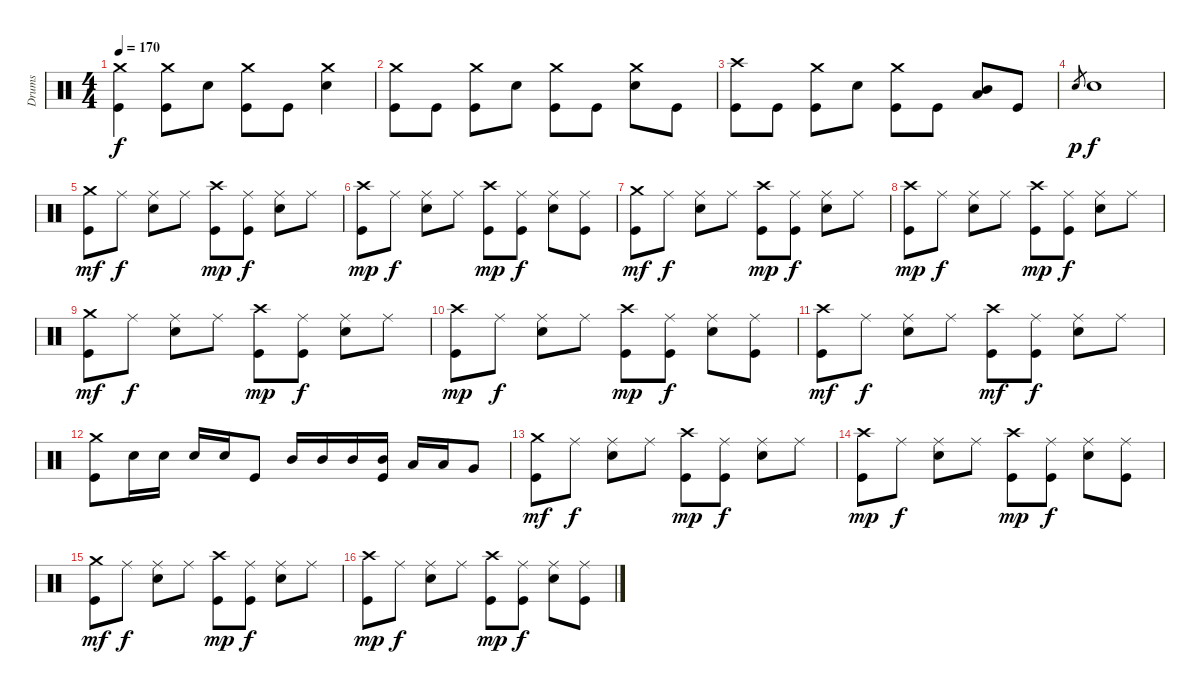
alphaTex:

\track ("Drums" "Drums") {instrument percussion}
\staff {score}
\articulation defaults
\ts (4 4)
\tempo 170
\clef neutral
\ks c
("Crash medium (hit)" "Kick (hit)").4{dy f} ("Crash medium (hit)" "Kick (hit)").8 "Snare (hit) 2".8 ("Crash medium (hit)" "Kick (hit)").8 "Kick (hit)".8 ("Crash medium (hit)" "Snare (hit) 2").4 |
("Crash medium (hit)" "Kick (hit)").8 "Kick (hit)".8 ("Crash medium (hit)" "Kick (hit)").8 "Snare (hit) 2".8 ("Crash medium (hit)" "Kick (hit)").8 "Kick (hit)".8 ("Crash medium (hit)" "Snare (hit) 2").8 "Kick (hit)".8 |
("Crash high (hit)" "Kick (hit)").8 "Kick (hit)".8 ("Crash medium (hit)" "Kick (hit)").8 "Snare (hit) 2".8 ("Crash medium (hit)" "Kick (hit)").8 "Kick (hit)".8 ("Mid Tom (hit)" "Low Tom (hit)").8 "Kick (hit)".8 |
"Snare (hit) 2".8{gr dy p} "Snare (hit) 2".1{dy f} |
("Crash medium (hit)" "Kick (hit)").8{dy mf} "Ride (middle)".8{dy f} ("Ride (middle)" "Snare (hit) 2").8 "Ride (middle)".8 ("Crash high (hit)" "Kick (hit)").8{dy mp} ("Ride (middle)" "Kick (hit)").8{dy f} ("Ride (middle)" "Snare (hit) 2").8 "Ride (middle)".8 |
("Crash high (hit)" "Kick (hit)").8{dy mp} "Ride (middle)".8{dy f} ("Ride (middle)" "Snare (hit) 2").8 "Ride (middle)".8 ("Crash high (hit)" "Kick (hit)").8{dy mp} ("Ride (middle)" "Kick (hit)").8{dy f} ("Ride (middle)" "Snare (hit) 2").8 ("Ride (middle)" "Kick (hit)").8 |
("Crash medium (hit)" "Kick (hit)").8{dy mf} "Ride (middle)".8{dy f} ("Ride (middle)" "Snare (hit) 2").8 "Ride (middle)".8 ("Crash high (hit)" "Kick (hit)").8{dy mp} ("Ride (middle)" "Kick (hit)").8{dy f} ("Ride (middle)" "Snare (hit) 2").8 "Ride (middle)".8 |
("Crash high (hit)" "Kick (hit)").8{dy mp} "Ride (middle)".8{dy f} ("Ride (middle)" "Snare (hit) 2").8 "Ride (middle)".8 ("Crash high (hit)" "Kick (hit)").8{dy mp} ("Ride (middle)" "Kick (hit)").8{dy f} ("Ride (middle)" "Snare (hit) 2").8 "Ride (middle)".8 |
("Crash medium (hit)" "Kick (hit)").8{dy mf} "Ride (middle)".8{dy f} ("Ride (middle)" "Snare (hit) 2").8 "Ride (middle)".8 ("Crash high (hit)" "Kick (hit)").8{dy mp} ("Ride (middle)" "Kick (hit)").8{dy f} ("Ride (middle)" "Snare (hit) 2").8 "Ride (middle)".8 |
("Crash high (hit)" "Kick (hit)").8{dy mp} "Ride (middle)".8{dy f} ("Ride (middle)" "Snare (hit) 2").8 "Ride (middle)".8 ("Crash high (hit)" "Kick (hit)").8{dy mp} ("Ride (middle)" "Kick (hit)").8{dy f} ("Ride (middle)" "Snare (hit) 2").8 ("Ride (middle)" "Kick (hit)").8 |
("Crash high (hit)" "Kick (hit)").8{dy mf} "Ride (middle)".8{dy f} ("Ride (middle)" "Snare (hit) 2").8 "Ride (middle)".8 ("Crash high (hit)" "Kick (hit)").8{dy mf} ("Ride (middle)" "Kick (hit)").8{dy f} ("Ride (middle)" "Snare (hit) 2").8 "Ride (middle)".8 |
("Crash medium (hit)" "Kick (hit)").8 "Snare (hit) 2".16 "Snare (hit) 2".16 "Snare (hit) 2".16 "Snare (hit) 2".16 "Kick (hit)".8 "Mid Tom (hit)".16 "Mid Tom (hit)".16 "Mid Tom (hit)".16 ("Mid Tom (hit)" "Kick (hit)").16 "Low Tom (hit)".16 "Low Tom (hit)".16 "Very Low Tom (hit)".8 |
("Crash medium (hit)" "Kick (hit)").8{dy mf} "Ride (middle)".8{dy f} ("Ride (middle)" "Snare (hit) 2").8 "Ride (middle)".8 ("Crash high (hit)" "Kick (hit)").8{dy mp} ("Ride (middle)" "Kick (hit)").8{dy f} ("Ride (middle)" "Snare (hit) 2").8 "Ride (middle)".8 |
("Crash high (hit)" "Kick (hit)").8{dy mp} "Ride (middle)".8{dy f} ("Ride (middle)" "Snare (hit) 2").8 "Ride (middle)".8 ("Crash high (hit)" "Kick (hit)").8{dy mp} ("Ride (middle)" "Kick (hit)").8{dy f} ("Ride (middle)" "Snare (hit) 2").8 ("Ride (middle)" "Kick (hit)").8 |
("Crash medium (hit)" "Kick (hit)").8{dy mf} "Ride (middle)".8{dy f} ("Ride (middle)" "Snare (hit) 2").8 "Ride (middle)".8 ("Crash high (hit)" "Kick (hit)").8{dy mp} ("Ride (middle)" "Kick (hit)").8{dy f} ("Ride (middle)" "Snare (hit) 2").8 "Ride (middle)".8 |
("Crash high (hit)" "Kick (hit)").8{dy mp} "Ride (middle)".8{dy f} ("Ride (middle)" "Snare (hit) 2").8 "Ride (middle)".8 ("Crash high (hit)" "Kick (hit)").8{dy mp} ("Ride (middle)" "Kick (hit)").8{dy f} ("Ride (middle)" "Snare (hit) 2").8 ("Ride (middle)" "Kick (hit)").8
